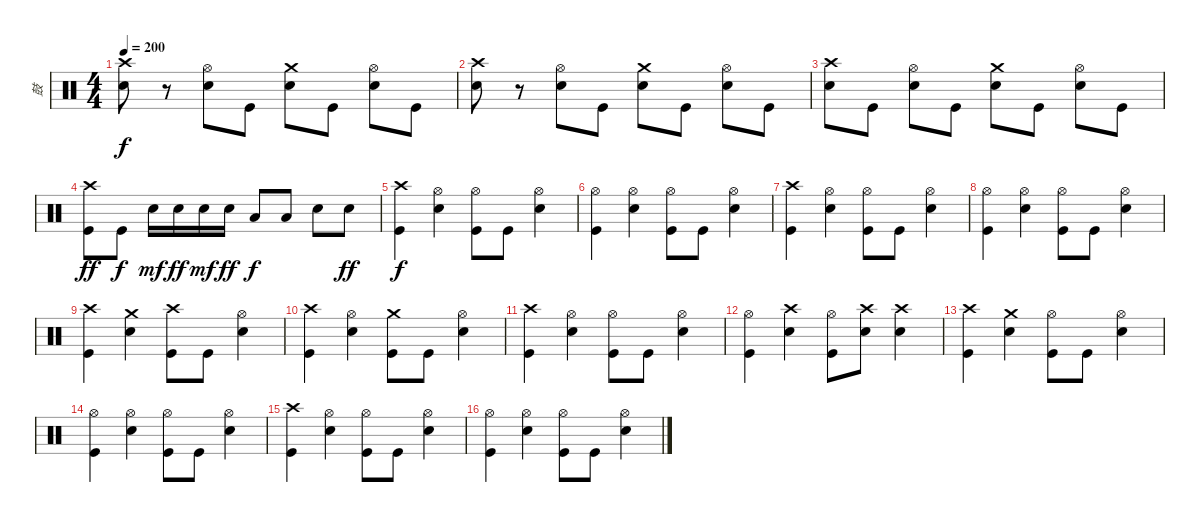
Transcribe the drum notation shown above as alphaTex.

\track ("鼓" "鼓") {instrument percussion}
\staff {score}
\articulation defaults
\ts (4 4)
\tempo 200
\clef neutral
\ks c
("Crash high (hit)" "Snare (hit) 2").8{dy f} r.8 ("Hi-Hat (open)" "Snare (hit) 2").8 "Kick (hit)".8 ("Crash medium (hit)" "Snare (hit) 2").8 "Kick (hit)".8 ("Hi-Hat (open)" "Snare (hit) 2").8 "Kick (hit)".8 |
("Crash high (hit)" "Snare (hit) 2").8 r.8 ("Hi-Hat (open)" "Snare (hit) 2").8 "Kick (hit)".8 ("Crash medium (hit)" "Snare (hit) 2").8 "Kick (hit)".8 ("Hi-Hat (open)" "Snare (hit) 2").8 "Kick (hit)".8 |
("Crash high (hit)" "Snare (hit) 2").8 "Kick (hit)".8 ("Hi-Hat (open)" "Snare (hit) 2").8 "Kick (hit)".8 ("Crash medium (hit)" "Snare (hit) 2").8 "Kick (hit)".8 ("Hi-Hat (open)" "Snare (hit) 2").8 "Kick (hit)".8 |
("Crash high (hit)" "Kick (hit)").8{dy ff} "Kick (hit)".8{dy f} "Snare (hit) 2".16{dy mf} "Snare (hit) 2".16{dy ff} "Snare (hit) 2".16{dy mf} "Snare (hit) 2".16{dy ff} "Low Floor Tom (hit)".8{dy f} "Low Floor Tom (hit)".8 "Snare (hit) 2".8 "Snare (hit) 2".8{dy ff} |
("Crash high (hit)" "Kick (hit)").4{dy f} ("Hi-Hat (open)" "Snare (hit) 2").4 ("Hi-Hat (open)" "Kick (hit)").8 "Kick (hit)".8 ("Hi-Hat (open)" "Snare (hit) 2").4 |
("Hi-Hat (open)" "Kick (hit)").4 ("Hi-Hat (open)" "Snare (hit) 2").4 ("Hi-Hat (open)" "Kick (hit)").8 "Kick (hit)".8 ("Hi-Hat (open)" "Snare (hit) 2").4 |
("Crash high (hit)" "Kick (hit)").4 ("Hi-Hat (open)" "Snare (hit) 2").4 ("Hi-Hat (open)" "Kick (hit)").8 "Kick (hit)".8 ("Hi-Hat (open)" "Snare (hit) 2").4 |
("Hi-Hat (open)" "Kick (hit)").4 ("Hi-Hat (open)" "Snare (hit) 2").4 ("Hi-Hat (open)" "Kick (hit)").8 "Kick (hit)".8 ("Hi-Hat (open)" "Snare (hit) 2").4 |
("Crash high (hit)" "Kick (hit)").4 ("Crash medium (hit)" "Snare (hit) 2").4 ("Crash high (hit)" "Kick (hit)").8 "Kick (hit)".8 ("Hi-Hat (open)" "Snare (hit) 2").4 |
("Crash high (hit)" "Kick (hit)").4 ("Hi-Hat (open)" "Snare (hit) 2").4 ("Crash medium (hit)" "Kick (hit)").8 "Kick (hit)".8 ("Hi-Hat (open)" "Snare (hit) 2").4 |
("Crash high (hit)" "Kick (hit)").4 ("Hi-Hat (open)" "Snare (hit) 2").4 ("Hi-Hat (open)" "Kick (hit)").8 "Kick (hit)".8 ("Hi-Hat (open)" "Snare (hit) 2").4 |
("Hi-Hat (open)" "Kick (hit)").4 ("Crash high (hit)" "Snare (hit) 2").4 ("Hi-Hat (open)" "Kick (hit)").8 ("Crash high (hit)" "Snare (hit) 2").8 ("Crash high (hit)" "Snare (hit) 2").4 |
("Crash high (hit)" "Kick (hit)").4 ("Crash medium (hit)" "Snare (hit) 2").4 ("Hi-Hat (open)" "Kick (hit)").8 "Kick (hit)".8 ("Hi-Hat (open)" "Snare (hit) 2").4 |
("Hi-Hat (open)" "Kick (hit)").4 ("Hi-Hat (open)" "Snare (hit) 2").4 ("Hi-Hat (open)" "Kick (hit)").8 "Kick (hit)".8 ("Hi-Hat (open)" "Snare (hit) 2").4 |
("Crash high (hit)" "Kick (hit)").4 ("Hi-Hat (open)" "Snare (hit) 2").4 ("Hi-Hat (open)" "Kick (hit)").8 "Kick (hit)".8 ("Hi-Hat (open)" "Snare (hit) 2").4 |
("Hi-Hat (open)" "Kick (hit)").4 ("Hi-Hat (open)" "Snare (hit) 2").4 ("Hi-Hat (open)" "Kick (hit)").8 "Kick (hit)".8 ("Hi-Hat (open)" "Snare (hit) 2").4
